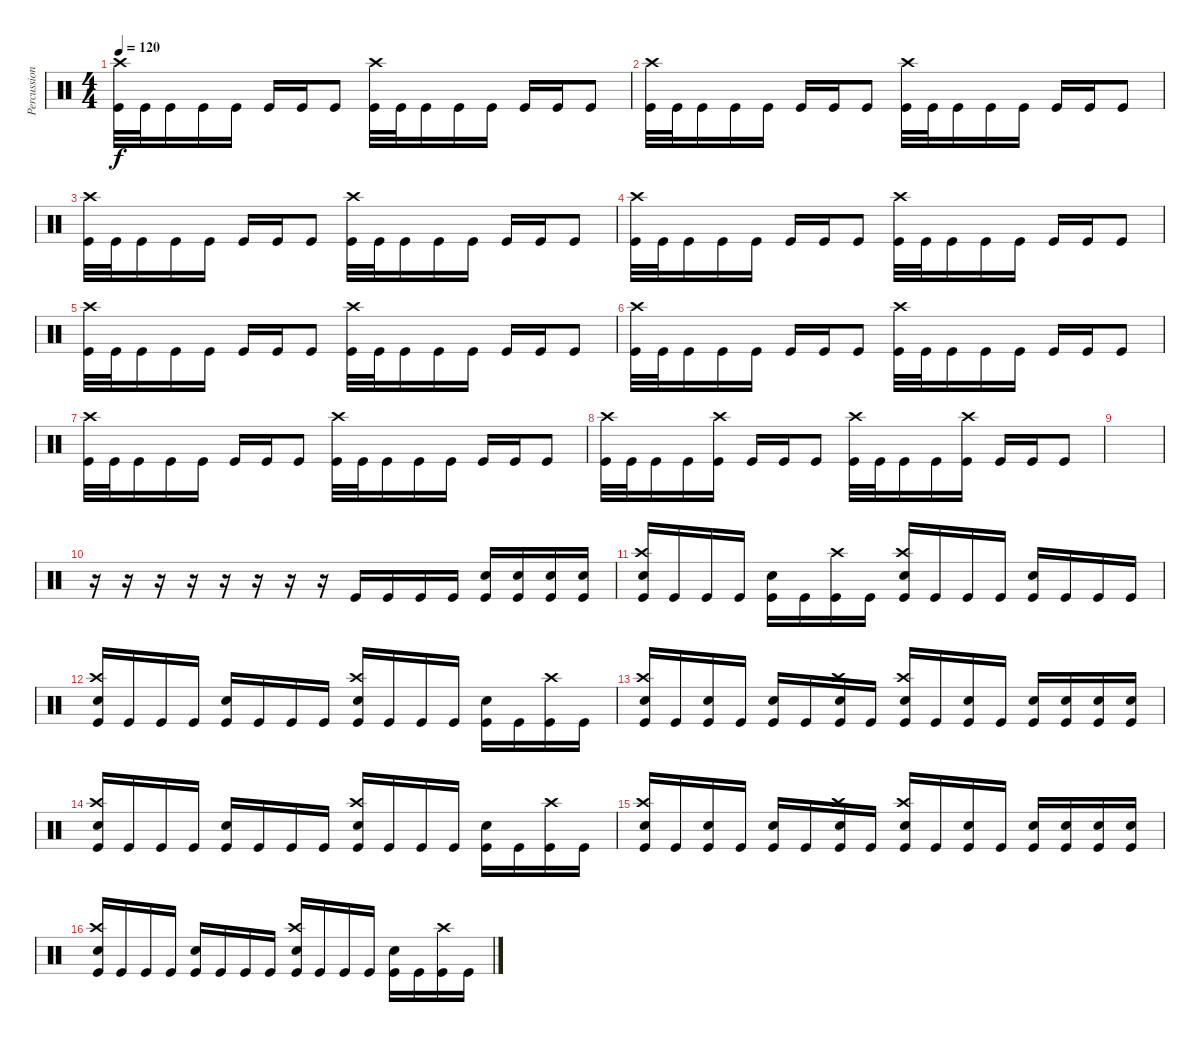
\track ("Percussion" "Percussion") {instrument percussion}
\staff {score}
\articulation defaults
\ts (4 4)
\tempo 120
\clef neutral
\ks c
("Kick (hit)" "Crash high (hit)").32{dy f} "Kick (hit)".32 "Kick (hit)".16 "Kick (hit)".16 "Kick (hit)".16 "Kick (hit)".16 "Kick (hit)".16 "Kick (hit)".8 ("Kick (hit)" "Crash high (hit)").32 "Kick (hit)".32 "Kick (hit)".16 "Kick (hit)".16 "Kick (hit)".16 "Kick (hit)".16 "Kick (hit)".16 "Kick (hit)".8 |
("Kick (hit)" "Crash high (hit)").32 "Kick (hit)".32 "Kick (hit)".16 "Kick (hit)".16 "Kick (hit)".16 "Kick (hit)".16 "Kick (hit)".16 "Kick (hit)".8 ("Kick (hit)" "Crash high (hit)").32 "Kick (hit)".32 "Kick (hit)".16 "Kick (hit)".16 "Kick (hit)".16 "Kick (hit)".16 "Kick (hit)".16 "Kick (hit)".8 |
("Kick (hit)" "Crash high (hit)").32 "Kick (hit)".32 "Kick (hit)".16 "Kick (hit)".16 "Kick (hit)".16 "Kick (hit)".16 "Kick (hit)".16 "Kick (hit)".8 ("Kick (hit)" "Crash high (hit)").32 "Kick (hit)".32 "Kick (hit)".16 "Kick (hit)".16 "Kick (hit)".16 "Kick (hit)".16 "Kick (hit)".16 "Kick (hit)".8 |
("Kick (hit)" "Crash high (hit)").32 "Kick (hit)".32 "Kick (hit)".16 "Kick (hit)".16 "Kick (hit)".16 "Kick (hit)".16 "Kick (hit)".16 "Kick (hit)".8 ("Kick (hit)" "Crash high (hit)").32 "Kick (hit)".32 "Kick (hit)".16 "Kick (hit)".16 "Kick (hit)".16 "Kick (hit)".16 "Kick (hit)".16 "Kick (hit)".8 |
("Kick (hit)" "Crash high (hit)").32 "Kick (hit)".32 "Kick (hit)".16 "Kick (hit)".16 "Kick (hit)".16 "Kick (hit)".16 "Kick (hit)".16 "Kick (hit)".8 ("Kick (hit)" "Crash high (hit)").32 "Kick (hit)".32 "Kick (hit)".16 "Kick (hit)".16 "Kick (hit)".16 "Kick (hit)".16 "Kick (hit)".16 "Kick (hit)".8 |
("Kick (hit)" "Crash high (hit)").32 "Kick (hit)".32 "Kick (hit)".16 "Kick (hit)".16 "Kick (hit)".16 "Kick (hit)".16 "Kick (hit)".16 "Kick (hit)".8 ("Kick (hit)" "Crash high (hit)").32 "Kick (hit)".32 "Kick (hit)".16 "Kick (hit)".16 "Kick (hit)".16 "Kick (hit)".16 "Kick (hit)".16 "Kick (hit)".8 |
("Kick (hit)" "Crash high (hit)").32 "Kick (hit)".32 "Kick (hit)".16 "Kick (hit)".16 "Kick (hit)".16 "Kick (hit)".16 "Kick (hit)".16 "Kick (hit)".8 ("Kick (hit)" "Crash high (hit)").32 "Kick (hit)".32 "Kick (hit)".16 "Kick (hit)".16 "Kick (hit)".16 "Kick (hit)".16 "Kick (hit)".16 "Kick (hit)".8 |
("Kick (hit)" "Crash high (hit)").32 "Kick (hit)".32 "Kick (hit)".16 "Kick (hit)".16 ("Kick (hit)" "Crash high (hit)").16 "Kick (hit)".16 "Kick (hit)".16 "Kick (hit)".8 ("Kick (hit)" "Crash high (hit)").32 "Kick (hit)".32 "Kick (hit)".16 "Kick (hit)".16 ("Kick (hit)" "Crash high (hit)").16 "Kick (hit)".16 "Kick (hit)".16 "Kick (hit)".8 |
|
r.16 r.16 r.16 r.16 r.16 r.16 r.16 r.16 "Kick (hit)".16 "Kick (hit)".16 "Kick (hit)".16 "Kick (hit)".16 ("Kick (hit)" "Snare (hit) 2").16 ("Kick (hit)" "Snare (hit) 2").16 ("Kick (hit)" "Snare (hit) 2").16 ("Kick (hit)" "Snare (hit) 2").16 |
("Kick (hit)" "Snare (hit) 2" "Crash high (hit)").16 "Kick (hit)".16 "Kick (hit)".16 "Kick (hit)".16 ("Kick (hit)" "Snare (hit) 2").16 "Kick (hit)".16 ("Kick (hit)" "Crash high (hit)").16 "Kick (hit)".16 ("Kick (hit)" "Snare (hit) 2" "Crash high (hit)").16 "Kick (hit)".16 "Kick (hit)".16 "Kick (hit)".16 ("Kick (hit)" "Snare (hit) 2").16 "Kick (hit)".16 "Kick (hit)".16 "Kick (hit)".16 |
("Kick (hit)" "Snare (hit) 2" "Crash high (hit)").16 "Kick (hit)".16 "Kick (hit)".16 "Kick (hit)".16 ("Kick (hit)" "Snare (hit) 2").16 "Kick (hit)".16 "Kick (hit)".16 "Kick (hit)".16 ("Kick (hit)" "Snare (hit) 2" "Crash high (hit)").16 "Kick (hit)".16 "Kick (hit)".16 "Kick (hit)".16 ("Kick (hit)" "Snare (hit) 2").16 "Kick (hit)".16 ("Kick (hit)" "Crash high (hit)").16 "Kick (hit)".16 |
("Kick (hit)" "Snare (hit) 2" "Crash high (hit)").16 "Kick (hit)".16 ("Kick (hit)" "Snare (hit) 2").16 "Kick (hit)".16 ("Kick (hit)" "Snare (hit) 2").16 "Kick (hit)".16 ("Kick (hit)" "Snare (hit) 2" "Crash high (hit)").16 "Kick (hit)".16 ("Kick (hit)" "Snare (hit) 2" "Crash high (hit)").16 "Kick (hit)".16 ("Kick (hit)" "Snare (hit) 2").16 "Kick (hit)".16 ("Kick (hit)" "Snare (hit) 2").16 ("Kick (hit)" "Snare (hit) 2").16 ("Kick (hit)" "Snare (hit) 2").16 ("Kick (hit)" "Snare (hit) 2").16 |
("Kick (hit)" "Snare (hit) 2" "Crash high (hit)").16 "Kick (hit)".16 "Kick (hit)".16 "Kick (hit)".16 ("Kick (hit)" "Snare (hit) 2").16 "Kick (hit)".16 "Kick (hit)".16 "Kick (hit)".16 ("Kick (hit)" "Snare (hit) 2" "Crash high (hit)").16 "Kick (hit)".16 "Kick (hit)".16 "Kick (hit)".16 ("Kick (hit)" "Snare (hit) 2").16 "Kick (hit)".16 ("Kick (hit)" "Crash high (hit)").16 "Kick (hit)".16 |
("Kick (hit)" "Snare (hit) 2" "Crash high (hit)").16 "Kick (hit)".16 ("Kick (hit)" "Snare (hit) 2").16 "Kick (hit)".16 ("Kick (hit)" "Snare (hit) 2").16 "Kick (hit)".16 ("Kick (hit)" "Snare (hit) 2" "Crash high (hit)").16 "Kick (hit)".16 ("Kick (hit)" "Snare (hit) 2" "Crash high (hit)").16 "Kick (hit)".16 ("Kick (hit)" "Snare (hit) 2").16 "Kick (hit)".16 ("Kick (hit)" "Snare (hit) 2").16 ("Kick (hit)" "Snare (hit) 2").16 ("Kick (hit)" "Snare (hit) 2").16 ("Kick (hit)" "Snare (hit) 2").16 |
("Kick (hit)" "Snare (hit) 2" "Crash high (hit)").16 "Kick (hit)".16 "Kick (hit)".16 "Kick (hit)".16 ("Kick (hit)" "Snare (hit) 2").16 "Kick (hit)".16 "Kick (hit)".16 "Kick (hit)".16 ("Kick (hit)" "Snare (hit) 2" "Crash high (hit)").16 "Kick (hit)".16 "Kick (hit)".16 "Kick (hit)".16 ("Kick (hit)" "Snare (hit) 2").16 "Kick (hit)".16 ("Kick (hit)" "Crash high (hit)").16 "Kick (hit)".16
